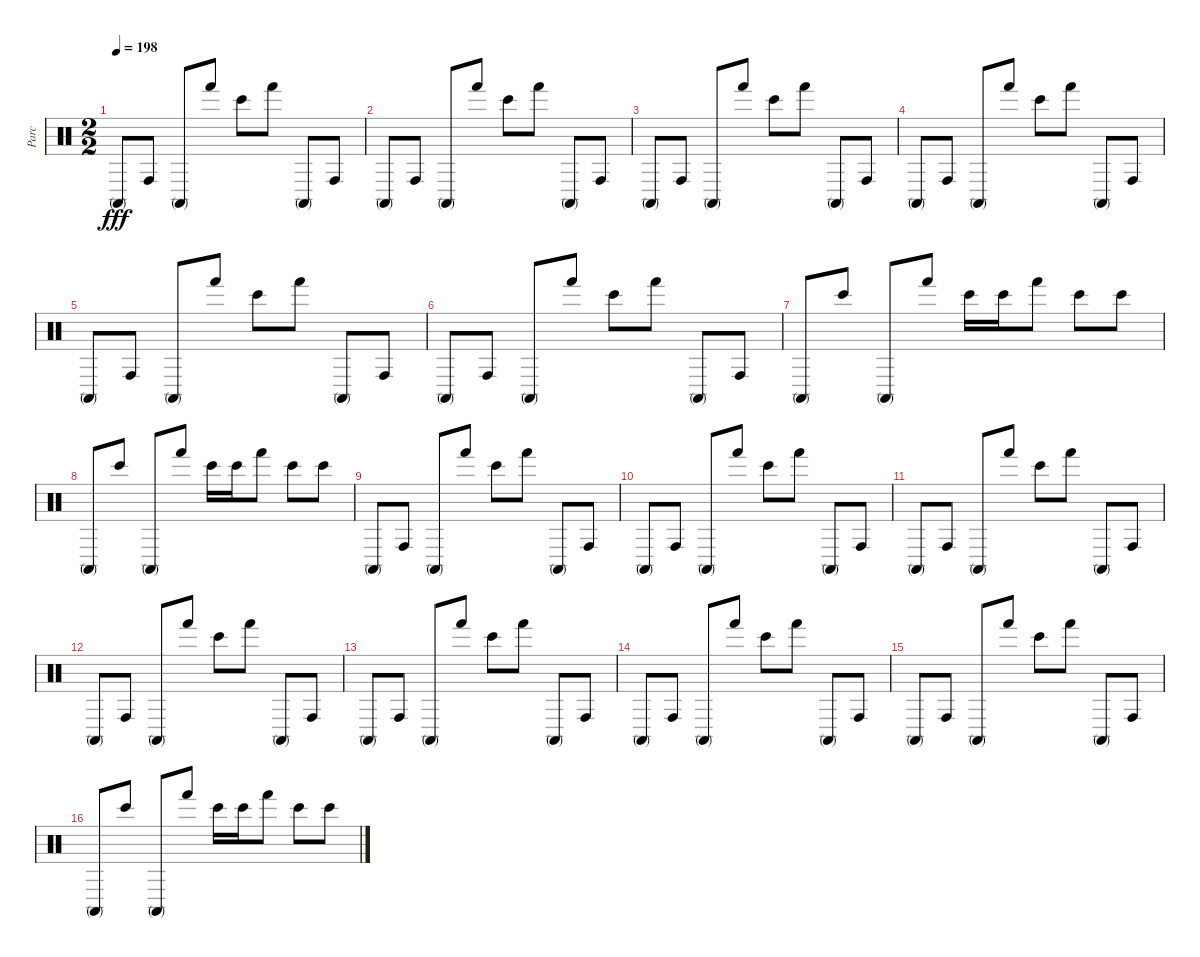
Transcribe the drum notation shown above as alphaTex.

\track ("Parc" "Parc") {instrument percussion}
\staff {score}
\articulation defaults
\ts (2 2)
\tempo 198
\clef neutral
\ks c "Conga high (mute)".8{dy fff} "Conga high (hit)".8 "Conga high (mute)".8 "Hand (hit)".8 "Bongo High (hit)".8 "Hand (hit)".8 "Conga high (mute)".8 "Conga high (hit)".8
|
"Conga high (mute)".8 "Conga high (hit)".8 "Conga high (mute)".8 "Hand (hit)".8 "Bongo High (hit)".8 "Hand (hit)".8 "Conga high (mute)".8 "Conga high (hit)".8 |
"Conga high (mute)".8 "Conga high (hit)".8 "Conga high (mute)".8 "Hand (hit)".8 "Bongo High (hit)".8 "Hand (hit)".8 "Conga high (mute)".8 "Conga high (hit)".8 |
"Conga high (mute)".8 "Conga high (hit)".8 "Conga high (mute)".8 "Hand (hit)".8 "Bongo High (hit)".8 "Hand (hit)".8 "Conga high (mute)".8 "Conga high (hit)".8 |
"Conga high (mute)".8 "Conga high (hit)".8 "Conga high (mute)".8 "Hand (hit)".8 "Bongo High (hit)".8 "Hand (hit)".8 "Conga high (mute)".8 "Conga high (hit)".8 |
"Conga high (mute)".8 "Conga high (hit)".8 "Conga high (mute)".8 "Hand (hit)".8 "Bongo High (hit)".8 "Hand (hit)".8 "Conga high (mute)".8 "Conga high (hit)".8 |
"Conga high (mute)".8 "Bongo High (hit)".8 "Conga high (mute)".8 "Hand (hit)".8 "Bongo High (hit)".16 "Bongo High (hit)".16 "Hand (hit)".8 "Bongo High (hit)".8 "Bongo High (hit)".8 |
"Conga high (mute)".8 "Bongo High (hit)".8 "Conga high (mute)".8 "Hand (hit)".8 "Bongo High (hit)".16 "Bongo High (hit)".16 "Hand (hit)".8 "Bongo High (hit)".8 "Bongo High (hit)".8 |
"Conga high (mute)".8 "Conga high (hit)".8 "Conga high (mute)".8 "Hand (hit)".8 "Bongo High (hit)".8 "Hand (hit)".8 "Conga high (mute)".8 "Conga high (hit)".8 |
"Conga high (mute)".8 "Conga high (hit)".8 "Conga high (mute)".8 "Hand (hit)".8 "Bongo High (hit)".8 "Hand (hit)".8 "Conga high (mute)".8 "Conga high (hit)".8 |
"Conga high (mute)".8 "Conga high (hit)".8 "Conga high (mute)".8 "Hand (hit)".8 "Bongo High (hit)".8 "Hand (hit)".8 "Conga high (mute)".8 "Conga high (hit)".8 |
"Conga high (mute)".8 "Conga high (hit)".8 "Conga high (mute)".8 "Hand (hit)".8 "Bongo High (hit)".8 "Hand (hit)".8 "Conga high (mute)".8 "Conga high (hit)".8 |
"Conga high (mute)".8 "Conga high (hit)".8 "Conga high (mute)".8 "Hand (hit)".8 "Bongo High (hit)".8 "Hand (hit)".8 "Conga high (mute)".8 "Conga high (hit)".8 |
"Conga high (mute)".8 "Conga high (hit)".8 "Conga high (mute)".8 "Hand (hit)".8 "Bongo High (hit)".8 "Hand (hit)".8 "Conga high (mute)".8 "Conga high (hit)".8 |
"Conga high (mute)".8 "Conga high (hit)".8 "Conga high (mute)".8 "Hand (hit)".8 "Bongo High (hit)".8 "Hand (hit)".8 "Conga high (mute)".8 "Conga high (hit)".8 |
"Conga high (mute)".8 "Bongo High (hit)".8 "Conga high (mute)".8 "Hand (hit)".8 "Bongo High (hit)".16 "Bongo High (hit)".16 "Hand (hit)".8 "Bongo High (hit)".8 "Bongo High (hit)".8
